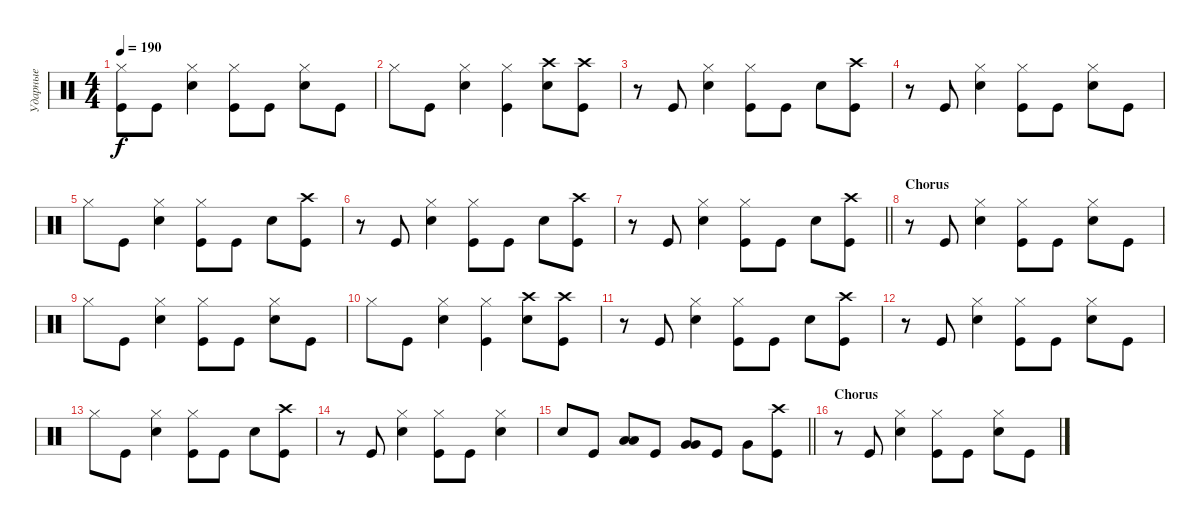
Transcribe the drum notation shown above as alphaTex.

\track ("Ударные" "Ударные") {instrument percussion}
\staff {score}
\articulation defaults
\ts (4 4)
\tempo 190
\clef neutral
\ks aminor
("Kick (hit)" "Hi-Hat (closed)").8{dy f} "Kick (hit)".8 ("Snare (hit) 2" "Hi-Hat (closed)").4 ("Kick (hit)" "Hi-Hat (closed)").8 "Kick (hit)".8 ("Snare (hit) 2" "Hi-Hat (closed)").8 "Kick (hit)".8 |
"Hi-Hat (closed)".8 "Kick (hit)".8 ("Snare (hit) 2" "Hi-Hat (closed)").4 ("Kick (hit)" "Hi-Hat (closed)").4 ("Snare (hit) 2" "Crash high (hit)").8 ("Kick (hit)" "Crash high (hit)").8 |
r.8 "Kick (hit)".8 ("Snare (hit) 2" "Hi-Hat (closed)").4 ("Kick (hit)" "Hi-Hat (closed)").8 "Kick (hit)".8 "Snare (hit) 2".8 ("Kick (hit)" "Crash high (hit)").8 |
r.8 "Kick (hit)".8 ("Snare (hit) 2" "Hi-Hat (closed)").4 ("Kick (hit)" "Hi-Hat (closed)").8 "Kick (hit)".8 ("Snare (hit) 2" "Hi-Hat (closed)").8 "Kick (hit)".8 |
"Hi-Hat (closed)".8 "Kick (hit)".8 ("Snare (hit) 2" "Hi-Hat (closed)").4 ("Kick (hit)" "Hi-Hat (closed)").8 "Kick (hit)".8 "Snare (hit) 2".8 ("Kick (hit)" "Crash high (hit)").8 |
r.8 "Kick (hit)".8 ("Snare (hit) 2" "Hi-Hat (closed)").4 ("Kick (hit)" "Hi-Hat (closed)").8 "Kick (hit)".8 "Snare (hit) 2".8 ("Kick (hit)" "Crash high (hit)").8 |
\barLineRight lightlight
r.8 "Kick (hit)".8 ("Snare (hit) 2" "Hi-Hat (closed)").4 ("Kick (hit)" "Hi-Hat (closed)").8 "Kick (hit)".8 "Snare (hit) 2".8 ("Kick (hit)" "Crash high (hit)").8 |
\section ("" "Chorus")
r.8 "Kick (hit)".8 ("Snare (hit) 2" "Hi-Hat (closed)").4 ("Kick (hit)" "Hi-Hat (closed)").8 "Kick (hit)".8 ("Snare (hit) 2" "Hi-Hat (closed)").8 "Kick (hit)".8 |
"Hi-Hat (closed)".8 "Kick (hit)".8 ("Snare (hit) 2" "Hi-Hat (closed)").4 ("Kick (hit)" "Hi-Hat (closed)").8 "Kick (hit)".8 ("Snare (hit) 2" "Hi-Hat (closed)").8 "Kick (hit)".8 |
"Hi-Hat (closed)".8 "Kick (hit)".8 ("Snare (hit) 2" "Hi-Hat (closed)").4 ("Kick (hit)" "Hi-Hat (closed)").4 ("Snare (hit) 2" "Crash high (hit)").8 ("Kick (hit)" "Crash high (hit)").8 |
r.8 "Kick (hit)".8 ("Snare (hit) 2" "Hi-Hat (closed)").4 ("Kick (hit)" "Hi-Hat (closed)").8 "Kick (hit)".8 "Snare (hit) 2".8 ("Kick (hit)" "Crash high (hit)").8 |
r.8 "Kick (hit)".8 ("Snare (hit) 2" "Hi-Hat (closed)").4 ("Kick (hit)" "Hi-Hat (closed)").8 "Kick (hit)".8 ("Snare (hit) 2" "Hi-Hat (closed)").8 "Kick (hit)".8 |
"Hi-Hat (closed)".8 "Kick (hit)".8 ("Snare (hit) 2" "Hi-Hat (closed)").4 ("Kick (hit)" "Hi-Hat (closed)").8 "Kick (hit)".8 "Snare (hit) 2".8 ("Kick (hit)" "Crash high (hit)").8 |
r.8 "Kick (hit)".8 ("Snare (hit) 2" "Hi-Hat (closed)").4 ("Kick (hit)" "Hi-Hat (closed)").8 "Kick (hit)".8 ("Snare (hit) 2" "Hi-Hat (closed)").4 |
\barLineRight lightlight "Snare (hit) 2".8 "Kick (hit)".8
("Low Tom (hit)" "Low Tom (hit)").8{bd 480} "Kick (hit)".8 ("Very Low Tom (hit)" "Very Low Tom (hit)").8{bd 480} "Kick (hit)".8 "Very Low Tom (hit)".8 ("Kick (hit)" "Crash high (hit)").8 |
\section ("" "Chorus")
r.8 "Kick (hit)".8 ("Snare (hit) 2" "Hi-Hat (closed)").4 ("Kick (hit)" "Hi-Hat (closed)").8 "Kick (hit)".8 ("Snare (hit) 2" "Hi-Hat (closed)").8 "Kick (hit)".8
